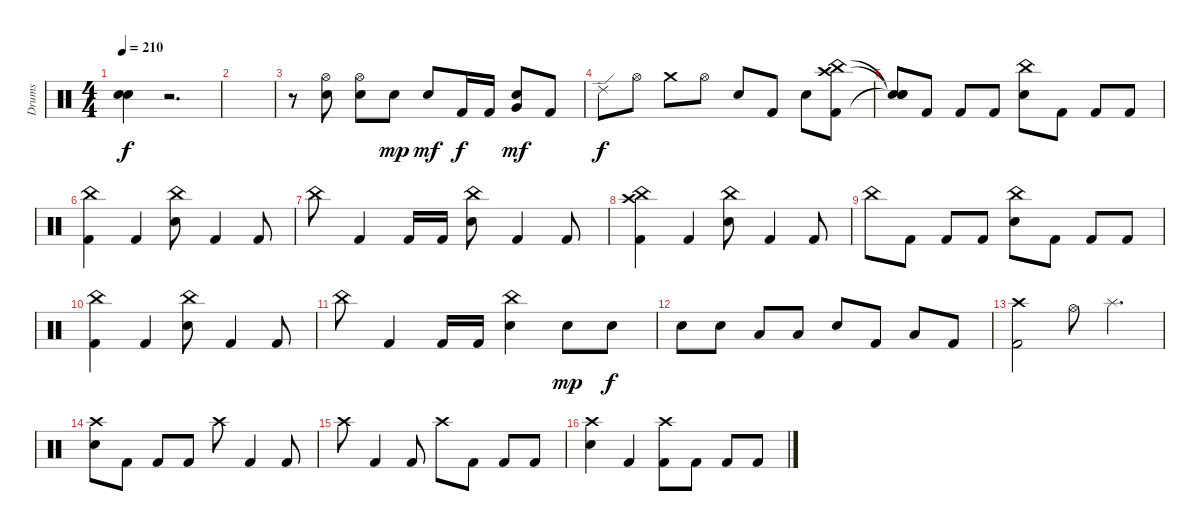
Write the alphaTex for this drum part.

\track ("Drums" "Drums") {instrument percussion}
\staff {score}
\articulation defaults
\ts (4 4)
\tempo 210
\clef neutral
\ks c
("Snare (hit)"{t} "Snare (hit)"{t}).4{dy f} r.2{d volume 0} |
|
r.8 ("Hi-Hat (open)" "Electric Snare (hit)").8{volume 16} ("Hi-Hat (open)" "Electric Snare (hit)").8 "Electric Snare (hit)".8{dy mp} "Electric Snare (hit)".8{dy mf} "Kick (hit) 2".16{dy f} "Kick (hit) 2".16 ("Very Low Tom (hit)" "Electric Snare (hit)").8{dy mf} "Kick (hit) 2".8 |
"Ride (edge) 2".8{dy f} "Hi-Hat (open)".8 "Crash medium (hit)".8 "Hi-Hat (open)".8 "Electric Snare (hit)".8 "Kick (hit) 2".8 "Electric Snare (hit)".8 ("Crash high (hit)" "China (hit)" "Kick (hit) 2").8 |
("Snare (hit)"{t} "Snare (hit)"{t} "Snare (hit)"{t}).8 "Kick (hit) 2".8 "Kick (hit) 2".8 "Kick (hit) 2".8 ("China (hit)" "Electric Snare (hit)").8 "Kick (hit) 2".8 "Kick (hit) 2".8 "Kick (hit) 2".8 |
("China (hit)" "Kick (hit) 2").4 "Kick (hit) 2".4 ("China (hit)" "Electric Snare (hit)").8 "Kick (hit) 2".4 "Kick (hit) 2".8 |
"China (hit)".8 "Kick (hit) 2".4 "Kick (hit) 2".16 "Kick (hit) 2".16 ("China (hit)" "Electric Snare (hit)").8 "Kick (hit) 2".4 "Kick (hit) 2".8 |
("China (hit)" "Crash high (hit)" "Kick (hit) 2").4 "Kick (hit) 2".4 ("China (hit)" "Electric Snare (hit)").8 "Kick (hit) 2".4 "Kick (hit) 2".8 |
"China (hit)".8 "Kick (hit) 2".8 "Kick (hit) 2".8 "Kick (hit) 2".8 ("China (hit)" "Electric Snare (hit)").8 "Kick (hit) 2".8 "Kick (hit) 2".8 "Kick (hit) 2".8 |
("China (hit)" "Kick (hit) 2").4 "Kick (hit) 2".4 ("China (hit)" "Electric Snare (hit)").8 "Kick (hit) 2".4 "Kick (hit) 2".8 |
"China (hit)".8 "Kick (hit) 2".4 "Kick (hit) 2".16 "Kick (hit) 2".16 ("China (hit)" "Electric Snare (hit)").4 "Electric Snare (hit)".8{dy mp} "Electric Snare (hit)".8{dy f} |
"Electric Snare (hit)".8 "Electric Snare (hit)".8 "Low Tom (hit)".8 "Low Tom (hit)".8 "Electric Snare (hit)".8 "Kick (hit) 2".8 "Low Tom (hit)".8 "Kick (hit) 2".8 |
("Crash high (hit)" "Kick (hit) 2").2 "Hi-Hat (open)".8 "Splash (hit)".4{d} |
("Crash high (hit)" "Electric Snare (hit)").8 "Kick (hit) 2".8 "Kick (hit) 2".8 "Kick (hit) 2".8 "Crash high (hit)".8 "Kick (hit) 2".4 "Kick (hit) 2".8 |
"Crash high (hit)".8 "Kick (hit) 2".4 "Kick (hit) 2".8 "Crash high (hit)".8 "Kick (hit) 2".8 "Kick (hit) 2".8 "Kick (hit) 2".8 |
("Crash high (hit)" "Electric Snare (hit)").4 "Kick (hit) 2".4 ("Crash high (hit)" "Kick (hit) 2").8 "Kick (hit) 2".8 "Kick (hit) 2".8 "Kick (hit) 2".8
